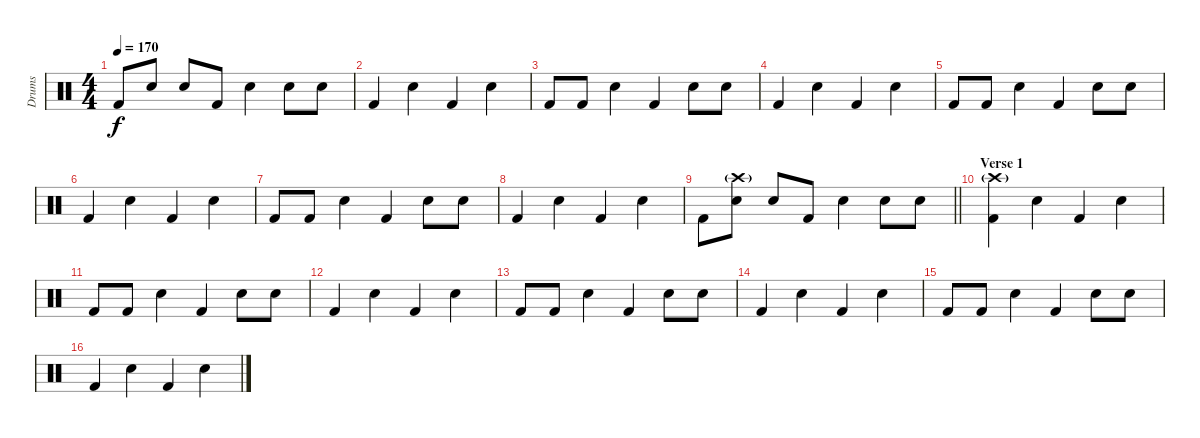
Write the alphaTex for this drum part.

\track ("Drums" "Drums") {instrument percussion}
\staff {score}
\articulation defaults
\ts (4 4)
\tempo 170
\clef neutral
\ks c "Kick (hit) 2".8{dy f} "Snare (hit) 2".8 "Snare (hit) 2".8 "Kick (hit) 2".8 "Snare (hit) 2".4 "Snare (hit) 2".8 "Snare (hit) 2".8
|
"Kick (hit) 2".4 "Hand Clap (hit)".4 "Kick (hit) 2".4 "Hand Clap (hit)".4 |
"Kick (hit) 2".8 "Kick (hit) 2".8 "Hand Clap (hit)".4 "Kick (hit) 2".4 "Hand Clap (hit)".8 "Hand Clap (hit)".8 |
"Kick (hit) 2".4 "Hand Clap (hit)".4 "Kick (hit) 2".4 "Hand Clap (hit)".4 |
"Kick (hit) 2".8 "Kick (hit) 2".8 "Hand Clap (hit)".4 "Kick (hit) 2".4 "Hand Clap (hit)".8 "Hand Clap (hit)".8 |
"Kick (hit) 2".4 "Hand Clap (hit)".4 "Kick (hit) 2".4 "Hand Clap (hit)".4 |
"Kick (hit) 2".8 "Kick (hit) 2".8 "Hand Clap (hit)".4 "Kick (hit) 2".4 "Hand Clap (hit)".8 "Hand Clap (hit)".8 |
"Kick (hit) 2".4 "Hand Clap (hit)".4 "Kick (hit) 2".4 "Hand Clap (hit)".4 |
\barLineRight lightlight "Kick (hit) 2".8
("Crash high (hit)"{g} "Snare (hit) 2").8 "Snare (hit) 2".8 "Kick (hit) 2".8 "Snare (hit) 2".4 "Snare (hit) 2".8 "Snare (hit) 2".8 |
\section ("" "Verse 1")
("Crash high (hit)"{g} "Kick (hit) 2").4 "Hand Clap (hit)".4 "Kick (hit) 2".4 "Hand Clap (hit)".4 |
"Kick (hit) 2".8 "Kick (hit) 2".8 "Hand Clap (hit)".4 "Kick (hit) 2".4 "Hand Clap (hit)".8 "Hand Clap (hit)".8 |
"Kick (hit) 2".4 "Hand Clap (hit)".4 "Kick (hit) 2".4 "Hand Clap (hit)".4 |
"Kick (hit) 2".8 "Kick (hit) 2".8 "Hand Clap (hit)".4 "Kick (hit) 2".4 "Hand Clap (hit)".8 "Hand Clap (hit)".8 |
"Kick (hit) 2".4 "Hand Clap (hit)".4 "Kick (hit) 2".4 "Hand Clap (hit)".4 |
"Kick (hit) 2".8 "Kick (hit) 2".8 "Hand Clap (hit)".4 "Kick (hit) 2".4 "Hand Clap (hit)".8 "Hand Clap (hit)".8 |
"Kick (hit) 2".4 "Hand Clap (hit)".4 "Kick (hit) 2".4 "Hand Clap (hit)".4
